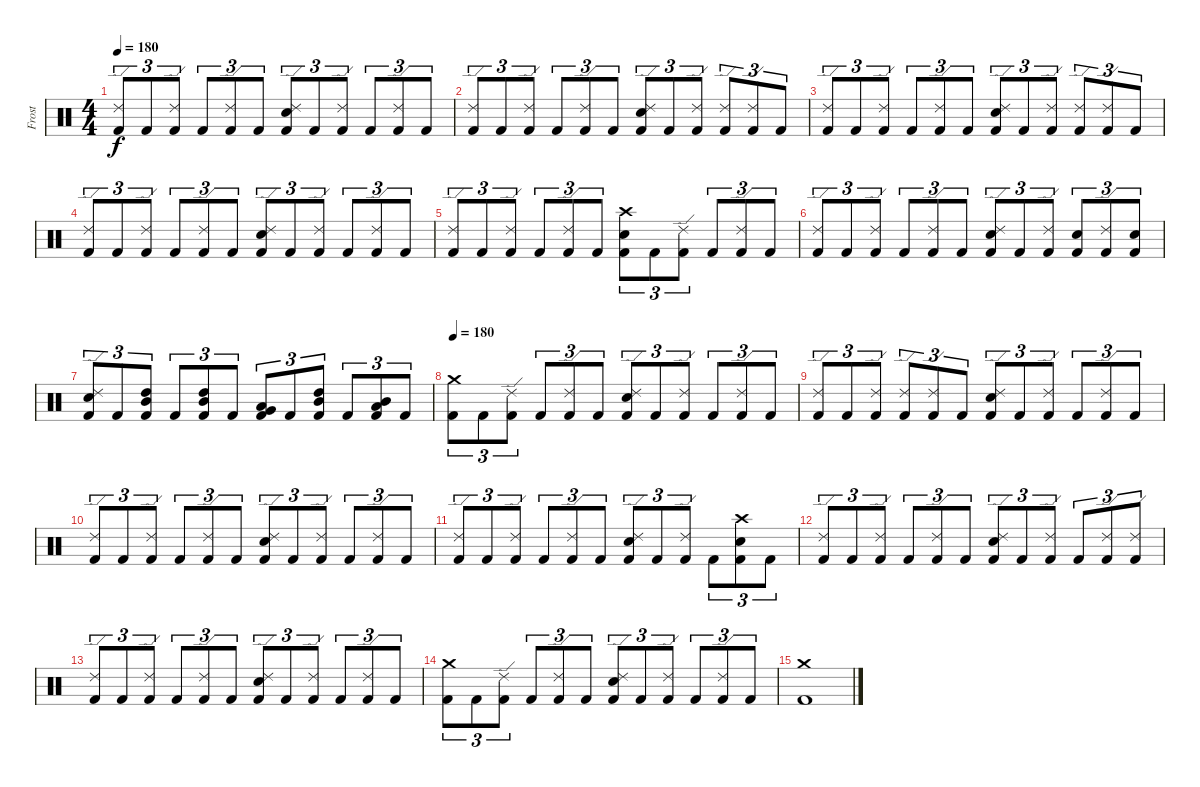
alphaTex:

\track ("Frost" "Frost") {instrument percussion}
\staff {score}
\articulation defaults
\ts (4 4)
\tempo 180
\clef neutral
\ks c
("Ride (edge) 2" "Kick (hit) 2").8{tu (3 2) dy f} "Kick (hit) 2".8{tu (3 2)} ("Ride (edge) 2" "Kick (hit) 2").8{tu (3 2)} "Kick (hit) 2".8{tu (3 2)} ("Ride (edge) 2" "Kick (hit) 2").8{tu (3 2)} "Kick (hit) 2".8{tu (3 2)} ("Ride (edge) 2" "Electric Snare (hit)" "Kick (hit) 2").8{tu (3 2)} "Kick (hit) 2".8{tu (3 2)} ("Ride (edge) 2" "Kick (hit) 2").8{tu (3 2)} "Kick (hit) 2".8{tu (3 2)} ("Ride (edge) 2" "Kick (hit) 2").8{tu (3 2)} "Kick (hit) 2".8{tu (3 2)} |
("Ride (edge) 2" "Kick (hit) 2").8{tu (3 2)} "Kick (hit) 2".8{tu (3 2)} ("Ride (edge) 2" "Kick (hit) 2").8{tu (3 2)} "Kick (hit) 2".8{tu (3 2)} ("Ride (edge) 2" "Kick (hit) 2").8{tu (3 2)} "Kick (hit) 2".8{tu (3 2)} ("Ride (edge) 2" "Electric Snare (hit)" "Kick (hit) 2").8{tu (3 2)} "Kick (hit) 2".8{tu (3 2)} ("Ride (edge) 2" "Kick (hit) 2").8{tu (3 2)} ("Ride (edge) 2" "Kick (hit) 2").8{tu (3 2)} ("Ride (edge) 2" "Kick (hit) 2").8{tu (3 2)} "Kick (hit) 2".8{tu (3 2)} |
("Ride (edge) 2" "Kick (hit) 2").8{tu (3 2)} "Kick (hit) 2".8{tu (3 2)} ("Ride (edge) 2" "Kick (hit) 2").8{tu (3 2)} "Kick (hit) 2".8{tu (3 2)} ("Ride (edge) 2" "Kick (hit) 2").8{tu (3 2)} "Kick (hit) 2".8{tu (3 2)} ("Ride (edge) 2" "Electric Snare (hit)" "Kick (hit) 2").8{tu (3 2)} "Kick (hit) 2".8{tu (3 2)} ("Ride (edge) 2" "Kick (hit) 2").8{tu (3 2)} ("Ride (edge) 2" "Kick (hit) 2").8{tu (3 2)} ("Ride (edge) 2" "Kick (hit) 2").8{tu (3 2)} "Kick (hit) 2".8{tu (3 2)} |
("Ride (edge) 2" "Kick (hit) 2").8{tu (3 2)} "Kick (hit) 2".8{tu (3 2)} ("Ride (edge) 2" "Kick (hit) 2").8{tu (3 2)} "Kick (hit) 2".8{tu (3 2)} ("Ride (edge) 2" "Kick (hit) 2").8{tu (3 2)} "Kick (hit) 2".8{tu (3 2)} ("Ride (edge) 2" "Electric Snare (hit)" "Kick (hit) 2").8{tu (3 2)} "Kick (hit) 2".8{tu (3 2)} ("Ride (edge) 2" "Kick (hit) 2").8{tu (3 2)} "Kick (hit) 2".8{tu (3 2)} ("Ride (edge) 2" "Kick (hit) 2").8{tu (3 2)} "Kick (hit) 2".8{tu (3 2)} |
("Ride (edge) 2" "Kick (hit) 2").8{tu (3 2)} "Kick (hit) 2".8{tu (3 2)} ("Ride (edge) 2" "Kick (hit) 2").8{tu (3 2)} "Kick (hit) 2".8{tu (3 2)} ("Ride (edge) 2" "Kick (hit) 2").8{tu (3 2)} "Kick (hit) 2".8{tu (3 2)} ("Crash high (hit)" "Electric Snare (hit)" "Kick (hit) 2").8{tu (3 2)} "Kick (hit) 2".8{tu (3 2)} ("Ride (edge) 2" "Kick (hit) 2").8{tu (3 2)} "Kick (hit) 2".8{tu (3 2)} ("Ride (edge) 2" "Kick (hit) 2").8{tu (3 2)} "Kick (hit) 2".8{tu (3 2)} |
("Ride (edge) 2" "Kick (hit) 2").8{tu (3 2)} "Kick (hit) 2".8{tu (3 2)} ("Ride (edge) 2" "Kick (hit) 2").8{tu (3 2)} "Kick (hit) 2".8{tu (3 2)} ("Ride (edge) 2" "Kick (hit) 2").8{tu (3 2)} "Kick (hit) 2".8{tu (3 2)} ("Ride (edge) 2" "Electric Snare (hit)" "Kick (hit) 2").8{tu (3 2)} "Kick (hit) 2".8{tu (3 2)} ("Ride (edge) 2" "Kick (hit) 2").8{tu (3 2)} ("Electric Snare (hit)" "Kick (hit) 2").8{tu (3 2)} ("Ride (edge) 2" "Kick (hit) 2").8{tu (3 2)} ("Electric Snare (hit)" "Kick (hit) 2").8{tu (3 2)} |
("Ride (edge) 2" "Electric Snare (hit)" "Kick (hit) 2").8{tu (3 2)} "Kick (hit) 2".8{tu (3 2)} ("High Tom (hit)" "Mid Tom (hit)" "Kick (hit) 2").8{tu (3 2)} "Kick (hit) 2".8{tu (3 2)} ("High Tom (hit)" "Mid Tom (hit)" "Kick (hit) 2").8{tu (3 2)} "Kick (hit) 2".8{tu (3 2)} ("Very Low Tom (hit)" "Low Floor Tom (hit)" "Kick (hit) 2").8{tu (3 2)} "Kick (hit) 2".8{tu (3 2)} ("High Tom (hit)" "Mid Tom (hit)" "Kick (hit) 2").8{tu (3 2)} "Kick (hit) 2".8{tu (3 2)} ("Mid Tom (hit)" "Low Tom (hit)" "Kick (hit) 2").8{tu (3 2)} "Kick (hit) 2".8{tu (3 2)} |
\tempo 180
("Crash medium (hit)" "Kick (hit) 2").8{tu (3 2)} "Kick (hit) 2".8{tu (3 2)} ("Ride (edge) 2" "Kick (hit) 2").8{tu (3 2)} "Kick (hit) 2".8{tu (3 2)} ("Ride (edge) 2" "Kick (hit) 2").8{tu (3 2)} "Kick (hit) 2".8{tu (3 2)} ("Ride (edge) 2" "Electric Snare (hit)" "Kick (hit) 2").8{tu (3 2)} "Kick (hit) 2".8{tu (3 2)} ("Ride (edge) 2" "Kick (hit) 2").8{tu (3 2)} "Kick (hit) 2".8{tu (3 2)} ("Ride (edge) 2" "Kick (hit) 2").8{tu (3 2)} "Kick (hit) 2".8{tu (3 2)} |
("Ride (edge) 2" "Kick (hit) 2").8{tu (3 2)} "Kick (hit) 2".8{tu (3 2)} ("Ride (edge) 2" "Kick (hit) 2").8{tu (3 2)} ("Ride (edge) 2" "Kick (hit) 2").8{tu (3 2)} ("Ride (edge) 2" "Kick (hit) 2").8{tu (3 2)} "Kick (hit) 2".8{tu (3 2)} ("Ride (edge) 2" "Electric Snare (hit)" "Kick (hit) 2").8{tu (3 2)} "Kick (hit) 2".8{tu (3 2)} ("Ride (edge) 2" "Kick (hit) 2").8{tu (3 2)} "Kick (hit) 2".8{tu (3 2)} ("Ride (edge) 2" "Kick (hit) 2").8{tu (3 2)} "Kick (hit) 2".8{tu (3 2)} |
("Ride (edge) 2" "Kick (hit) 2").8{tu (3 2)} "Kick (hit) 2".8{tu (3 2)} ("Ride (edge) 2" "Kick (hit) 2").8{tu (3 2)} "Kick (hit) 2".8{tu (3 2)} ("Ride (edge) 2" "Kick (hit) 2").8{tu (3 2)} "Kick (hit) 2".8{tu (3 2)} ("Ride (edge) 2" "Electric Snare (hit)" "Kick (hit) 2").8{tu (3 2)} "Kick (hit) 2".8{tu (3 2)} ("Ride (edge) 2" "Kick (hit) 2").8{tu (3 2)} "Kick (hit) 2".8{tu (3 2)} ("Ride (edge) 2" "Kick (hit) 2").8{tu (3 2)} "Kick (hit) 2".8{tu (3 2)} |
("Ride (edge) 2" "Kick (hit) 2").8{tu (3 2)} "Kick (hit) 2".8{tu (3 2)} ("Ride (edge) 2" "Kick (hit) 2").8{tu (3 2)} "Kick (hit) 2".8{tu (3 2)} ("Ride (edge) 2" "Kick (hit) 2").8{tu (3 2)} "Kick (hit) 2".8{tu (3 2)} ("Ride (edge) 2" "Electric Snare (hit)" "Kick (hit) 2").8{tu (3 2)} "Kick (hit) 2".8{tu (3 2)} ("Ride (edge) 2" "Kick (hit) 2").8{tu (3 2)} "Kick (hit) 2".8{tu (3 2)} ("Crash high (hit)" "Electric Snare (hit)" "Kick (hit) 2").8{tu (3 2)} "Kick (hit) 2".8{tu (3 2)} |
("Ride (edge) 2" "Kick (hit) 2").8{tu (3 2)} "Kick (hit) 2".8{tu (3 2)} ("Ride (edge) 2" "Kick (hit) 2").8{tu (3 2)} "Kick (hit) 2".8{tu (3 2)} ("Ride (edge) 2" "Kick (hit) 2").8{tu (3 2)} "Kick (hit) 2".8{tu (3 2)} ("Ride (edge) 2" "Electric Snare (hit)" "Kick (hit) 2").8{tu (3 2)} "Kick (hit) 2".8{tu (3 2)} ("Ride (edge) 2" "Kick (hit) 2").8{tu (3 2)} "Kick (hit) 2".8{tu (3 2)} ("Ride (edge) 2" "Kick (hit) 2").8{tu (3 2)} ("Ride (edge) 2" "Kick (hit) 2").8{tu (3 2)} |
("Ride (edge) 2" "Kick (hit) 2").8{tu (3 2)} "Kick (hit) 2".8{tu (3 2)} ("Ride (edge) 2" "Kick (hit) 2").8{tu (3 2)} "Kick (hit) 2".8{tu (3 2)} ("Ride (edge) 2" "Kick (hit) 2").8{tu (3 2)} "Kick (hit) 2".8{tu (3 2)} ("Ride (edge) 2" "Electric Snare (hit)" "Kick (hit) 2").8{tu (3 2)} "Kick (hit) 2".8{tu (3 2)} ("Ride (edge) 2" "Kick (hit) 2").8{tu (3 2)} "Kick (hit) 2".8{tu (3 2)} ("Ride (edge) 2" "Kick (hit) 2").8{tu (3 2)} "Kick (hit) 2".8{tu (3 2)} |
("Crash medium (hit)" "Kick (hit) 2").8{tu (3 2)} "Kick (hit) 2".8{tu (3 2)} ("Ride (edge) 2" "Kick (hit) 2").8{tu (3 2)} "Kick (hit) 2".8{tu (3 2)} ("Ride (edge) 2" "Kick (hit) 2").8{tu (3 2)} "Kick (hit) 2".8{tu (3 2)} ("Ride (edge) 2" "Electric Snare (hit)" "Kick (hit) 2").8{tu (3 2)} "Kick (hit) 2".8{tu (3 2)} ("Ride (edge) 2" "Kick (hit) 2").8{tu (3 2)} "Kick (hit) 2".8{tu (3 2)} ("Ride (edge) 2" "Kick (hit) 2").8{tu (3 2)} "Kick (hit) 2".8{tu (3 2)} |
("Crash medium (hit)" "Kick (hit) 2").1
